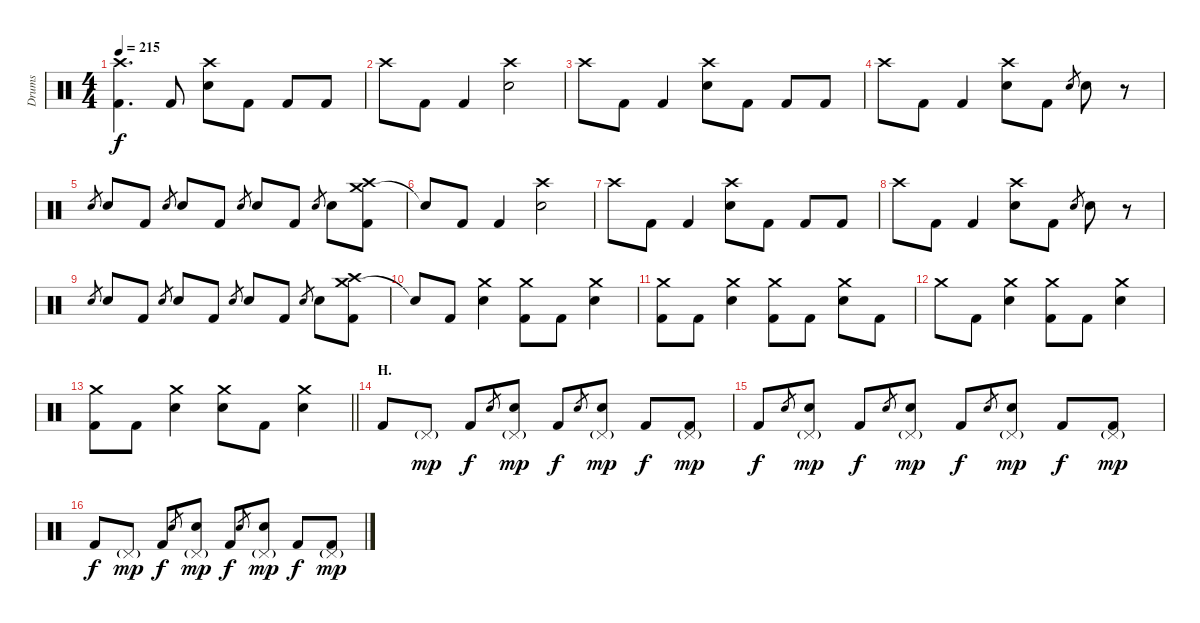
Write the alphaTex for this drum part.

\track ("Drums" "Drums") {instrument percussion}
\staff {score}
\articulation defaults
\ts (4 4)
\tempo 215
\clef neutral
\ks c
("Crash high (hit)" "Kick (hit) 2").4{d dy f} "Kick (hit) 2".8 ("Crash high (hit)" "Electric Snare (hit)").8 "Kick (hit) 2".8 "Kick (hit) 2".8 "Kick (hit) 2".8 |
"Crash high (hit)".8 "Kick (hit) 2".8 "Kick (hit) 2".4 ("Crash high (hit)" "Electric Snare (hit)").2 |
"Crash high (hit)".8 "Kick (hit) 2".8 "Kick (hit) 2".4 ("Crash high (hit)" "Electric Snare (hit)").8 "Kick (hit) 2".8 "Kick (hit) 2".8 "Kick (hit) 2".8 |
"Crash high (hit)".8 "Kick (hit) 2".8 "Kick (hit) 2".4 ("Crash high (hit)" "Electric Snare (hit)").8 "Kick (hit) 2".8 "Electric Snare (hit)".8{gr} "Electric Snare (hit)".8 r.8 |
"Electric Snare (hit)".8{gr} "Electric Snare (hit)".8 "Kick (hit) 2".8 "Electric Snare (hit)".8{gr} "Electric Snare (hit)".8 "Kick (hit) 2".8 "Electric Snare (hit)".8{gr} "Electric Snare (hit)".8 "Kick (hit) 2".8 "Electric Snare (hit)".8{gr} "Electric Snare (hit)".8 ("Crash medium (hit)" "Crash high (hit)" "Kick (hit) 2").8 |
"Snare (hit)"{t}.8 "Kick (hit) 2".8 "Kick (hit) 2".4 ("Crash high (hit)" "Electric Snare (hit)").2 |
"Crash high (hit)".8 "Kick (hit) 2".8 "Kick (hit) 2".4 ("Crash high (hit)" "Electric Snare (hit)").8 "Kick (hit) 2".8 "Kick (hit) 2".8 "Kick (hit) 2".8 |
"Crash high (hit)".8 "Kick (hit) 2".8 "Kick (hit) 2".4 ("Crash high (hit)" "Electric Snare (hit)").8 "Kick (hit) 2".8 "Electric Snare (hit)".8{gr} "Electric Snare (hit)".8 r.8 |
"Electric Snare (hit)".8{gr} "Electric Snare (hit)".8 "Kick (hit) 2".8 "Electric Snare (hit)".8{gr} "Electric Snare (hit)".8 "Kick (hit) 2".8 "Electric Snare (hit)".8{gr} "Electric Snare (hit)".8 "Kick (hit) 2".8 "Electric Snare (hit)".8{gr} "Electric Snare (hit)".8 ("Crash medium (hit)" "Crash high (hit)" "Kick (hit) 2").8 |
"Snare (hit)"{t}.8 "Kick (hit) 2".8 ("Crash medium (hit)" "Electric Snare (hit)").4 ("Crash medium (hit)" "Kick (hit) 2").8 "Kick (hit) 2".8 ("Crash medium (hit)" "Electric Snare (hit)").4 |
("Crash medium (hit)" "Kick (hit) 2").8 "Kick (hit) 2".8 ("Crash medium (hit)" "Electric Snare (hit)").4 ("Crash medium (hit)" "Kick (hit) 2").8 "Kick (hit) 2".8 ("Crash medium (hit)" "Electric Snare (hit)").8 "Kick (hit) 2".8 |
"Crash medium (hit)".8 "Kick (hit) 2".8 ("Crash medium (hit)" "Electric Snare (hit)").4 ("Crash medium (hit)" "Kick (hit) 2").8 "Kick (hit) 2".8 ("Crash medium (hit)" "Electric Snare (hit)").4 |
\barLineRight lightlight
("Crash medium (hit)" "Kick (hit) 2").8 "Kick (hit) 2".8 ("Crash medium (hit)" "Electric Snare (hit)").4 ("Crash medium (hit)" "Electric Snare (hit)").8 "Kick (hit) 2".8 ("Crash medium (hit)" "Electric Snare (hit)").4 |
\section ("" "H.")
"Kick (hit) 2".8 "Pedal Hi-Hat (hit)"{g}.8{dy mp} "Kick (hit) 2".8{dy f} "Electric Snare (hit)".8{gr} ("Pedal Hi-Hat (hit)"{g} "Electric Snare (hit)").8{dy mp} "Kick (hit) 2".8{dy f} "Electric Snare (hit)".8{gr} ("Pedal Hi-Hat (hit)"{g} "Electric Snare (hit)").8{dy mp} "Kick (hit) 2".8{dy f} ("Pedal Hi-Hat (hit)"{g} "Kick (hit) 2").8{dy mp} |
"Kick (hit) 2".8{dy f} "Electric Snare (hit)".8{gr} ("Pedal Hi-Hat (hit)"{g} "Electric Snare (hit)").8{dy mp} "Kick (hit) 2".8{dy f} "Electric Snare (hit)".8{gr} ("Pedal Hi-Hat (hit)"{g} "Electric Snare (hit)").8{dy mp} "Kick (hit) 2".8{dy f} "Electric Snare (hit)".8{gr} ("Pedal Hi-Hat (hit)"{g} "Electric Snare (hit)").8{dy mp} "Kick (hit) 2".8{dy f} ("Pedal Hi-Hat (hit)"{g} "Kick (hit) 2").8{dy mp} |
"Kick (hit) 2".8{dy f} "Pedal Hi-Hat (hit)"{g}.8{dy mp} "Kick (hit) 2".8{dy f} "Electric Snare (hit)".8{gr} ("Pedal Hi-Hat (hit)"{g} "Electric Snare (hit)").8{dy mp} "Kick (hit) 2".8{dy f} "Electric Snare (hit)".8{gr} ("Pedal Hi-Hat (hit)"{g} "Electric Snare (hit)").8{dy mp} "Kick (hit) 2".8{dy f} ("Pedal Hi-Hat (hit)"{g} "Kick (hit) 2").8{dy mp}
